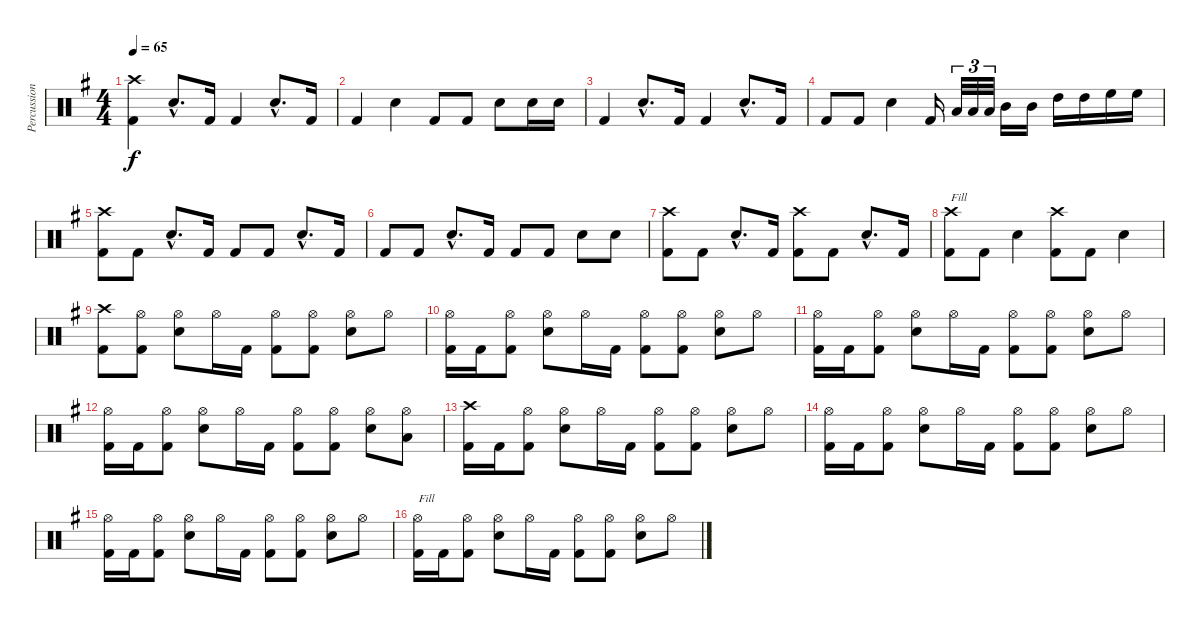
\track ("Percussion" "Percussion") {instrument percussion}
\staff {score}
\articulation defaults
\ts (4 4)
\tempo 65
\clef neutral
\ks eminor
("Crash high (hit)" "Kick (hit) 2").4{dy f} "Snare (hit) 2"{hac}.8{d} "Kick (hit) 2".16 "Kick (hit) 2".4 "Snare (hit) 2"{hac}.8{d} "Kick (hit) 2".16 |
"Kick (hit) 2".4 "Snare (hit) 2".4 "Kick (hit) 2".8 "Kick (hit) 2".8 "Snare (hit) 2".8 "Snare (hit) 2".16 "Snare (hit) 2".16 |
"Kick (hit) 2".4 "Snare (hit) 2"{hac}.8{d} "Kick (hit) 2".16 "Kick (hit) 2".4 "Snare (hit) 2"{hac}.8{d} "Kick (hit) 2".16 |
"Kick (hit) 2".8 "Kick (hit) 2".8 "Snare (hit) 2".4 "Kick (hit) 2".16 "Low Tom (hit)".32{tu (3 2)} "Low Tom (hit)".32{tu (3 2)} "Low Tom (hit)".32{tu (3 2)} "Mid Tom (hit)".16 "Mid Tom (hit)".16 "High Tom (hit)".16 "High Tom (hit)".16 "High Floor Tom (hit)".16 "High Floor Tom (hit)".16 |
("Crash high (hit)" "Kick (hit) 2").8 "Kick (hit) 2".8 "Snare (hit) 2"{hac}.8{d} "Kick (hit) 2".16 "Kick (hit) 2".8 "Kick (hit) 2".8 "Snare (hit) 2"{hac}.8{d} "Kick (hit) 2".16 |
"Kick (hit) 2".8 "Kick (hit) 2".8 "Snare (hit) 2"{hac}.8{d} "Kick (hit) 2".16 "Kick (hit) 2".8 "Kick (hit) 2".8 "Snare (hit) 2".8 "Snare (hit) 2".8 |
("Crash high (hit)" "Kick (hit) 2").8 "Kick (hit) 2".8 "Snare (hit) 2"{hac}.8{d} "Kick (hit) 2".16 ("Crash high (hit)" "Kick (hit) 2").8 "Kick (hit) 2".8 "Snare (hit) 2"{hac}.8{d} "Kick (hit) 2".16 |
("Crash high (hit)" "Kick (hit) 2").8{txt "Fill"} "Kick (hit) 2".8 "Snare (hit) 2".4 ("Crash high (hit)" "Kick (hit) 2").8 "Kick (hit) 2".8 "Snare (hit) 2".4 |
("Crash high (hit)" "Kick (hit) 2").8 ("Hi-Hat (open)" "Kick (hit) 2").8 ("Hi-Hat (open)" "Snare (hit) 2").8 "Hi-Hat (open)".16 "Kick (hit) 2".16 ("Hi-Hat (open)" "Kick (hit) 2").8 ("Hi-Hat (open)" "Kick (hit) 2").8 ("Hi-Hat (open)" "Snare (hit) 2").8 "Hi-Hat (open)".8 |
("Hi-Hat (open)" "Kick (hit) 2").16 "Kick (hit) 2".16 ("Hi-Hat (open)" "Kick (hit) 2").8 ("Hi-Hat (open)" "Snare (hit) 2").8 "Hi-Hat (open)".16 "Kick (hit) 2".16 ("Hi-Hat (open)" "Kick (hit) 2").8 ("Hi-Hat (open)" "Kick (hit) 2").8 ("Hi-Hat (open)" "Snare (hit) 2").8 "Hi-Hat (open)".8 |
("Hi-Hat (open)" "Kick (hit) 2").16 "Kick (hit) 2".16 ("Hi-Hat (open)" "Kick (hit) 2").8 ("Hi-Hat (open)" "Snare (hit) 2").8 "Hi-Hat (open)".16 "Kick (hit) 2".16 ("Hi-Hat (open)" "Kick (hit) 2").8 ("Hi-Hat (open)" "Kick (hit) 2").8 ("Hi-Hat (open)" "Snare (hit) 2").8 "Hi-Hat (open)".8 |
("Hi-Hat (open)" "Kick (hit) 2").16 "Kick (hit) 2".16 ("Hi-Hat (open)" "Kick (hit) 2").8 ("Hi-Hat (open)" "Snare (hit) 2").8 "Hi-Hat (open)".16 "Kick (hit) 2".16 ("Hi-Hat (open)" "Kick (hit) 2").8 ("Hi-Hat (open)" "Kick (hit) 2").8 ("Hi-Hat (open)" "Snare (hit) 2").8 ("Hi-Hat (open)" "Low Tom (hit)").8 |
("Crash high (hit)" "Kick (hit) 2").16 "Kick (hit) 2".16 ("Hi-Hat (open)" "Kick (hit) 2").8 ("Hi-Hat (open)" "Snare (hit) 2").8 "Hi-Hat (open)".16 "Kick (hit) 2".16 ("Hi-Hat (open)" "Kick (hit) 2").8 ("Hi-Hat (open)" "Kick (hit) 2").8 ("Hi-Hat (open)" "Snare (hit) 2").8 "Hi-Hat (open)".8 |
("Hi-Hat (open)" "Kick (hit) 2").16 "Kick (hit) 2".16 ("Hi-Hat (open)" "Kick (hit) 2").8 ("Hi-Hat (open)" "Snare (hit) 2").8 "Hi-Hat (open)".16 "Kick (hit) 2".16 ("Hi-Hat (open)" "Kick (hit) 2").8 ("Hi-Hat (open)" "Kick (hit) 2").8 ("Hi-Hat (open)" "Snare (hit) 2").8 "Hi-Hat (open)".8 |
("Hi-Hat (open)" "Kick (hit) 2").16 "Kick (hit) 2".16 ("Hi-Hat (open)" "Kick (hit) 2").8 ("Hi-Hat (open)" "Snare (hit) 2").8 "Hi-Hat (open)".16 "Kick (hit) 2".16 ("Hi-Hat (open)" "Kick (hit) 2").8 ("Hi-Hat (open)" "Kick (hit) 2").8 ("Hi-Hat (open)" "Snare (hit) 2").8 "Hi-Hat (open)".8 |
("Hi-Hat (open)" "Kick (hit) 2").16{txt "Fill"} "Kick (hit) 2".16 ("Hi-Hat (open)" "Kick (hit) 2").8 ("Hi-Hat (open)" "Snare (hit) 2").8 "Hi-Hat (open)".16 "Kick (hit) 2".16 ("Hi-Hat (open)" "Kick (hit) 2").8 ("Hi-Hat (open)" "Kick (hit) 2").8 ("Hi-Hat (open)" "Snare (hit) 2").8 "Hi-Hat (open)".8
